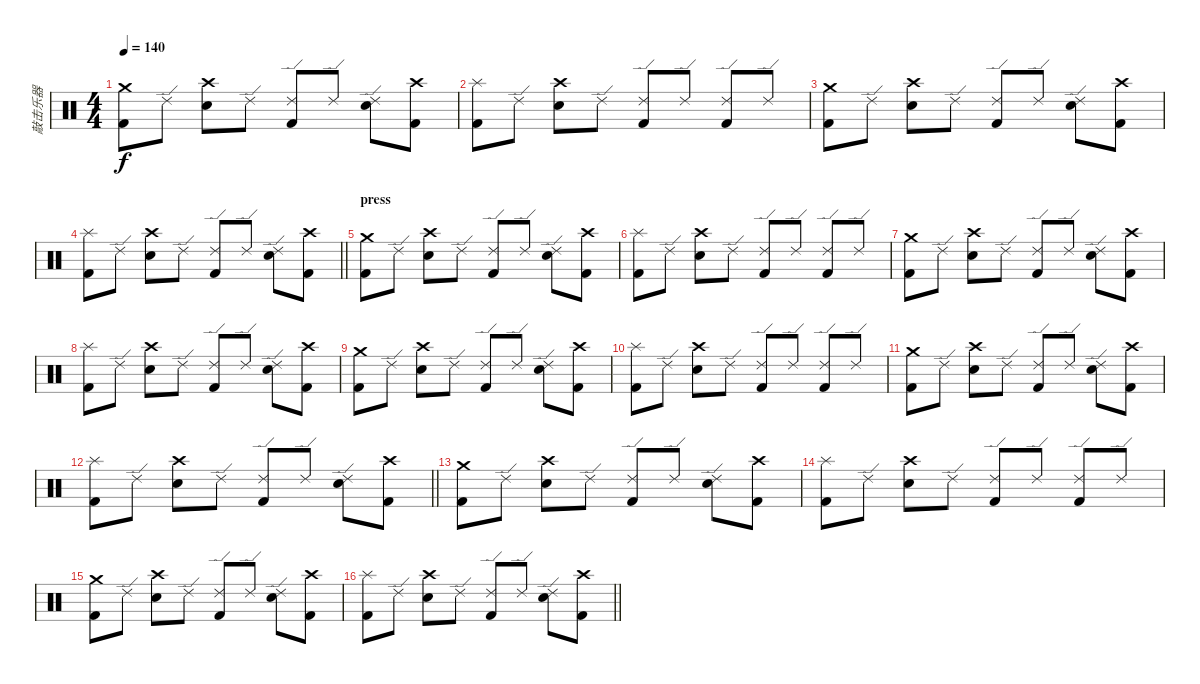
\track ("敲击乐器" "敲击乐器") {instrument percussion}
\staff {score}
\articulation defaults
\ts (4 4)
\tempo 140
\clef neutral
\ks c
("Crash medium (hit)" "Kick (hit) 2").8{dy f} "Ride (edge) 2".8 ("Crash high (hit)" "Snare (hit) 2").8 "Ride (edge) 2".8 ("Ride (edge) 2" "Kick (hit) 2").8 "Ride (edge) 2".8 ("Ride (edge) 2" "Snare (hit) 2").8 ("Crash high (hit)" "Kick (hit) 2").8 |
("Splash (hit)" "Kick (hit) 2").8 "Ride (edge) 2".8 ("Crash high (hit)" "Snare (hit) 2").8 "Ride (edge) 2".8 ("Ride (edge) 2" "Kick (hit) 2").8 "Ride (edge) 2".8 ("Ride (edge) 2" "Kick (hit) 2").8 "Ride (edge) 2".8 |
("Crash medium (hit)" "Kick (hit) 2").8 "Ride (edge) 2".8 ("Crash high (hit)" "Snare (hit) 2").8 "Ride (edge) 2".8 ("Ride (edge) 2" "Kick (hit) 2").8 "Ride (edge) 2".8 ("Ride (edge) 2" "Snare (hit) 2").8 ("Crash high (hit)" "Kick (hit) 2").8 |
\barLineRight lightlight
("Splash (hit)" "Kick (hit) 2").8 "Ride (edge) 2".8 ("Crash high (hit)" "Snare (hit) 2").8 "Ride (edge) 2".8 ("Ride (edge) 2" "Kick (hit) 2").8 "Ride (edge) 2".8 ("Ride (edge) 2" "Snare (hit) 2").8 ("Crash high (hit)" "Kick (hit) 2").8 |
\section ("" "press")
("Crash medium (hit)" "Kick (hit) 2").8 "Ride (edge) 2".8 ("Crash high (hit)" "Snare (hit) 2").8 "Ride (edge) 2".8 ("Ride (edge) 2" "Kick (hit) 2").8 "Ride (edge) 2".8 ("Ride (edge) 2" "Snare (hit) 2").8 ("Crash high (hit)" "Kick (hit) 2").8 |
("Splash (hit)" "Kick (hit) 2").8 "Ride (edge) 2".8 ("Crash high (hit)" "Snare (hit) 2").8 "Ride (edge) 2".8 ("Ride (edge) 2" "Kick (hit) 2").8 "Ride (edge) 2".8 ("Ride (edge) 2" "Kick (hit) 2").8 "Ride (edge) 2".8 |
("Crash medium (hit)" "Kick (hit) 2").8 "Ride (edge) 2".8 ("Crash high (hit)" "Snare (hit) 2").8 "Ride (edge) 2".8 ("Ride (edge) 2" "Kick (hit) 2").8 "Ride (edge) 2".8 ("Ride (edge) 2" "Snare (hit) 2").8 ("Crash high (hit)" "Kick (hit) 2").8 |
("Splash (hit)" "Kick (hit) 2").8 "Ride (edge) 2".8 ("Crash high (hit)" "Snare (hit) 2").8 "Ride (edge) 2".8 ("Ride (edge) 2" "Kick (hit) 2").8 "Ride (edge) 2".8 ("Ride (edge) 2" "Snare (hit) 2").8 ("Crash high (hit)" "Kick (hit) 2").8 |
("Crash medium (hit)" "Kick (hit) 2").8 "Ride (edge) 2".8 ("Crash high (hit)" "Snare (hit) 2").8 "Ride (edge) 2".8 ("Ride (edge) 2" "Kick (hit) 2").8 "Ride (edge) 2".8 ("Ride (edge) 2" "Snare (hit) 2").8 ("Crash high (hit)" "Kick (hit) 2").8 |
("Splash (hit)" "Kick (hit) 2").8 "Ride (edge) 2".8 ("Crash high (hit)" "Snare (hit) 2").8 "Ride (edge) 2".8 ("Ride (edge) 2" "Kick (hit) 2").8 "Ride (edge) 2".8 ("Ride (edge) 2" "Kick (hit) 2").8 "Ride (edge) 2".8 |
("Crash medium (hit)" "Kick (hit) 2").8 "Ride (edge) 2".8 ("Crash high (hit)" "Snare (hit) 2").8 "Ride (edge) 2".8 ("Ride (edge) 2" "Kick (hit) 2").8 "Ride (edge) 2".8 ("Ride (edge) 2" "Snare (hit) 2").8 ("Crash high (hit)" "Kick (hit) 2").8 |
\barLineRight lightlight
("Splash (hit)" "Kick (hit) 2").8 "Ride (edge) 2".8 ("Crash high (hit)" "Snare (hit) 2").8 "Ride (edge) 2".8 ("Ride (edge) 2" "Kick (hit) 2").8 "Ride (edge) 2".8 ("Ride (edge) 2" "Snare (hit) 2").8 ("Crash high (hit)" "Kick (hit) 2").8 |
("Crash medium (hit)" "Kick (hit) 2").8 "Ride (edge) 2".8 ("Crash high (hit)" "Snare (hit) 2").8 "Ride (edge) 2".8 ("Ride (edge) 2" "Kick (hit) 2").8 "Ride (edge) 2".8 ("Ride (edge) 2" "Snare (hit) 2").8 ("Crash high (hit)" "Kick (hit) 2").8 |
("Splash (hit)" "Kick (hit) 2").8 "Ride (edge) 2".8 ("Crash high (hit)" "Snare (hit) 2").8 "Ride (edge) 2".8 ("Ride (edge) 2" "Kick (hit) 2").8 "Ride (edge) 2".8 ("Ride (edge) 2" "Kick (hit) 2").8 "Ride (edge) 2".8 |
("Crash medium (hit)" "Kick (hit) 2").8 "Ride (edge) 2".8 ("Crash high (hit)" "Snare (hit) 2").8 "Ride (edge) 2".8 ("Ride (edge) 2" "Kick (hit) 2").8 "Ride (edge) 2".8 ("Ride (edge) 2" "Snare (hit) 2").8 ("Crash high (hit)" "Kick (hit) 2").8 |
\barLineRight lightlight
("Splash (hit)" "Kick (hit) 2").8 "Ride (edge) 2".8 ("Crash high (hit)" "Snare (hit) 2").8 "Ride (edge) 2".8 ("Ride (edge) 2" "Kick (hit) 2").8 "Ride (edge) 2".8 ("Ride (edge) 2" "Snare (hit) 2").8 ("Crash high (hit)" "Kick (hit) 2").8
